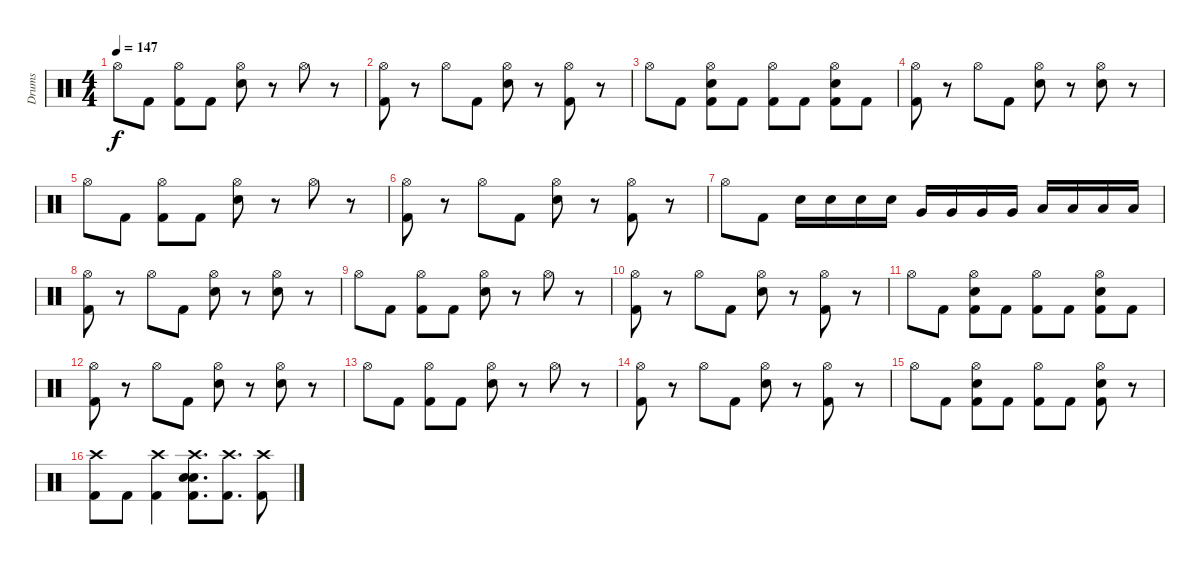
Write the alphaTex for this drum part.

\track ("Drums" "Drums") {instrument percussion}
\staff {score}
\articulation defaults
\ts (4 4)
\tempo 147
\clef neutral
\ks c "Hi-Hat (open)".8{dy f} "Kick (hit) 2".8
("Hi-Hat (open)" "Kick (hit) 2").8 "Kick (hit) 2".8 ("Hi-Hat (open)" "Electric Snare (hit)").8 r.8 "Hi-Hat (open)".8 r.8 |
("Hi-Hat (open)" "Kick (hit) 2").8 r.8 "Hi-Hat (open)".8 "Kick (hit) 2".8 ("Hi-Hat (open)" "Snare (hit) 2").8 r.8 ("Hi-Hat (open)" "Kick (hit) 2").8 r.8 |
"Hi-Hat (open)".8 "Kick (hit) 2".8 ("Hi-Hat (open)" "Snare (hit) 2" "Kick (hit) 2").8 "Kick (hit) 2".8 ("Hi-Hat (open)" "Kick (hit) 2").8 "Kick (hit) 2".8 ("Hi-Hat (open)" "Snare (hit) 2" "Kick (hit) 2").8 "Kick (hit) 2".8 |
("Hi-Hat (open)" "Kick (hit) 2").8 r.8 "Hi-Hat (open)".8 "Kick (hit) 2".8 ("Hi-Hat (open)" "Snare (hit) 2").8 r.8 ("Hi-Hat (open)" "Snare (hit) 2").8 r.8 |
"Hi-Hat (open)".8 "Kick (hit) 2".8 ("Hi-Hat (open)" "Kick (hit) 2").8 "Kick (hit) 2".8 ("Hi-Hat (open)" "Electric Snare (hit)").8 r.8 "Hi-Hat (open)".8 r.8 |
("Hi-Hat (open)" "Kick (hit) 2").8 r.8 "Hi-Hat (open)".8 "Kick (hit) 2".8 ("Hi-Hat (open)" "Snare (hit) 2").8 r.8 ("Hi-Hat (open)" "Kick (hit) 2").8 r.8 |
"Hi-Hat (open)".8 "Kick (hit) 2".8 "Snare (hit) 2".16 "Snare (hit) 2".16 "Snare (hit) 2".16 "Snare (hit) 2".16 "Very Low Tom (hit)".16 "Very Low Tom (hit)".16 "Very Low Tom (hit)".16 "Very Low Tom (hit)".16 "Low Tom (hit)".16 "Low Tom (hit)".16 "Low Tom (hit)".16 "Low Tom (hit)".16 |
("Hi-Hat (open)" "Kick (hit) 2").8 r.8 "Hi-Hat (open)".8 "Kick (hit) 2".8 ("Hi-Hat (open)" "Snare (hit) 2").8 r.8 ("Hi-Hat (open)" "Snare (hit) 2").8 r.8 |
"Hi-Hat (open)".8 "Kick (hit) 2".8 ("Hi-Hat (open)" "Kick (hit) 2").8 "Kick (hit) 2".8 ("Hi-Hat (open)" "Electric Snare (hit)").8 r.8 "Hi-Hat (open)".8 r.8 |
("Hi-Hat (open)" "Kick (hit) 2").8 r.8 "Hi-Hat (open)".8 "Kick (hit) 2".8 ("Hi-Hat (open)" "Snare (hit) 2").8 r.8 ("Hi-Hat (open)" "Kick (hit) 2").8 r.8 |
"Hi-Hat (open)".8 "Kick (hit) 2".8 ("Hi-Hat (open)" "Snare (hit) 2" "Kick (hit) 2").8 "Kick (hit) 2".8 ("Hi-Hat (open)" "Kick (hit) 2").8 "Kick (hit) 2".8 ("Hi-Hat (open)" "Snare (hit) 2" "Kick (hit) 2").8 "Kick (hit) 2".8 |
("Hi-Hat (open)" "Kick (hit) 2").8 r.8 "Hi-Hat (open)".8 "Kick (hit) 2".8 ("Hi-Hat (open)" "Snare (hit) 2").8 r.8 ("Hi-Hat (open)" "Snare (hit) 2").8 r.8 |
"Hi-Hat (open)".8 "Kick (hit) 2".8 ("Hi-Hat (open)" "Kick (hit) 2").8 "Kick (hit) 2".8 ("Hi-Hat (open)" "Electric Snare (hit)").8 r.8 "Hi-Hat (open)".8 r.8 |
("Hi-Hat (open)" "Kick (hit) 2").8 r.8 "Hi-Hat (open)".8 "Kick (hit) 2".8 ("Hi-Hat (open)" "Snare (hit) 2").8 r.8 ("Hi-Hat (open)" "Kick (hit) 2").8 r.8 |
"Hi-Hat (open)".8 "Kick (hit) 2".8 ("Hi-Hat (open)" "Snare (hit) 2" "Kick (hit) 2").8 "Kick (hit) 2".8 ("Hi-Hat (open)" "Kick (hit) 2").8 "Kick (hit) 2".8 ("Hi-Hat (open)" "Snare (hit) 2" "Kick (hit) 2").8 r.8 |
("Crash high (hit)" "Kick (hit) 2").8 "Kick (hit) 2".8 ("Crash high (hit)" "Kick (hit) 2").4 ("Crash high (hit)" "Electric Snare (hit)" "Snare (hit) 2" "Kick (hit) 2").8{d} ("Crash high (hit)" "Kick (hit) 2").8{d} ("Crash high (hit)" "Kick (hit) 2").8
